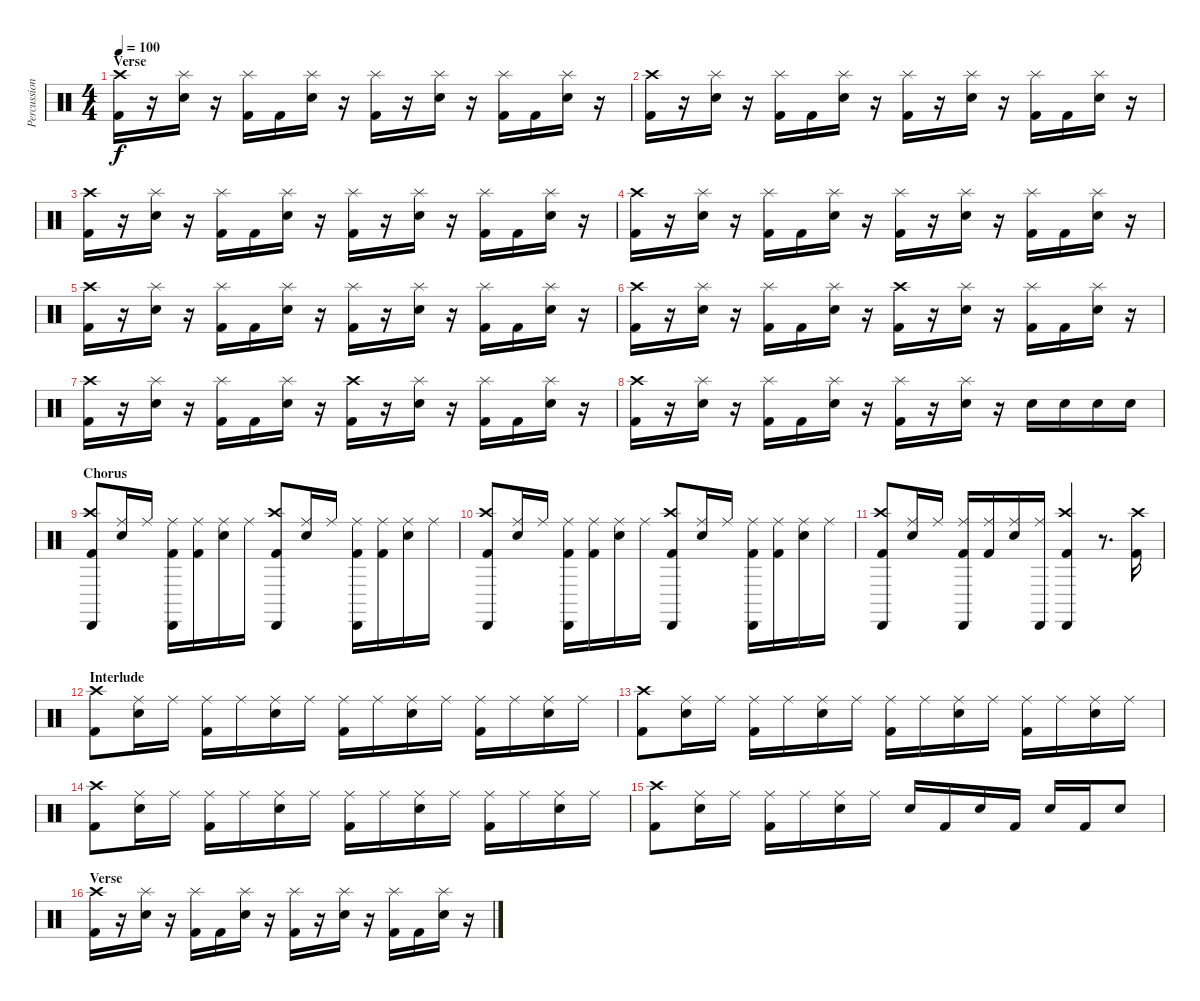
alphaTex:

\track ("Percussion" "Percussion") {instrument percussion}
\staff {score}
\articulation defaults
\ts (4 4)
\section ("" "Verse")
\tempo 100
\clef neutral
\ks c
("Crash high (hit)" "Kick (hit) 2").16{dy f} r.16 ("Splash (hit)" "Snare (hit) 2").16 r.16 ("Splash (hit)" "Kick (hit) 2").16 "Kick (hit) 2".16 ("Splash (hit)" "Snare (hit) 2").16 r.16 ("Splash (hit)" "Kick (hit) 2").16 r.16 ("Splash (hit)" "Snare (hit) 2").16 r.16 ("Splash (hit)" "Kick (hit) 2").16 "Kick (hit) 2".16 ("Splash (hit)" "Snare (hit) 2").16 r.16 |
("Crash high (hit)" "Kick (hit) 2").16 r.16 ("Splash (hit)" "Snare (hit) 2").16 r.16 ("Splash (hit)" "Kick (hit) 2").16 "Kick (hit) 2".16 ("Splash (hit)" "Snare (hit) 2").16 r.16 ("Splash (hit)" "Kick (hit) 2").16 r.16 ("Splash (hit)" "Snare (hit) 2").16 r.16 ("Splash (hit)" "Kick (hit) 2").16 "Kick (hit) 2".16 ("Splash (hit)" "Snare (hit) 2").16 r.16 |
("Crash high (hit)" "Kick (hit) 2").16 r.16 ("Splash (hit)" "Snare (hit) 2").16 r.16 ("Splash (hit)" "Kick (hit) 2").16 "Kick (hit) 2".16 ("Splash (hit)" "Snare (hit) 2").16 r.16 ("Splash (hit)" "Kick (hit) 2").16 r.16 ("Splash (hit)" "Snare (hit) 2").16 r.16 ("Splash (hit)" "Kick (hit) 2").16 "Kick (hit) 2".16 ("Splash (hit)" "Snare (hit) 2").16 r.16 |
("Crash high (hit)" "Kick (hit) 2").16 r.16 ("Splash (hit)" "Snare (hit) 2").16 r.16 ("Splash (hit)" "Kick (hit) 2").16 "Kick (hit) 2".16 ("Splash (hit)" "Snare (hit) 2").16 r.16 ("Splash (hit)" "Kick (hit) 2").16 r.16 ("Splash (hit)" "Snare (hit) 2").16 r.16 ("Splash (hit)" "Kick (hit) 2").16 "Kick (hit) 2".16 ("Splash (hit)" "Snare (hit) 2").16 r.16 |
("Crash high (hit)" "Kick (hit) 2").16 r.16 ("Splash (hit)" "Snare (hit) 2").16 r.16 ("Splash (hit)" "Kick (hit) 2").16 "Kick (hit) 2".16 ("Splash (hit)" "Snare (hit) 2").16 r.16 ("Splash (hit)" "Kick (hit) 2").16 r.16 ("Splash (hit)" "Snare (hit) 2").16 r.16 ("Splash (hit)" "Kick (hit) 2").16 "Kick (hit) 2".16 ("Splash (hit)" "Snare (hit) 2").16 r.16 |
("Crash high (hit)" "Kick (hit) 2").16 r.16 ("Splash (hit)" "Snare (hit) 2").16 r.16 ("Splash (hit)" "Kick (hit) 2").16 "Kick (hit) 2".16 ("Splash (hit)" "Snare (hit) 2").16 r.16 ("Crash high (hit)" "Kick (hit) 2").16 r.16 ("Splash (hit)" "Snare (hit) 2").16 r.16 ("Splash (hit)" "Kick (hit) 2").16 "Kick (hit) 2".16 ("Splash (hit)" "Snare (hit) 2").16 r.16 |
("Crash high (hit)" "Kick (hit) 2").16 r.16 ("Splash (hit)" "Snare (hit) 2").16 r.16 ("Splash (hit)" "Kick (hit) 2").16 "Kick (hit) 2".16 ("Splash (hit)" "Snare (hit) 2").16 r.16 ("Crash high (hit)" "Kick (hit) 2").16 r.16 ("Splash (hit)" "Snare (hit) 2").16 r.16 ("Splash (hit)" "Kick (hit) 2").16 "Kick (hit) 2".16 ("Splash (hit)" "Snare (hit) 2").16 r.16 |
("Crash high (hit)" "Kick (hit) 2").16 r.16 ("Splash (hit)" "Snare (hit) 2").16 r.16 ("Splash (hit)" "Kick (hit) 2").16 "Kick (hit) 2".16 ("Splash (hit)" "Snare (hit) 2").16 r.16 ("Splash (hit)" "Kick (hit) 2").16 r.16 ("Splash (hit)" "Snare (hit) 2").16 r.16 "Snare (hit) 2".16 "Snare (hit) 2".16 "Snare (hit) 2".16 "Snare (hit) 2".16 |
\section ("" "Chorus")
("Crash high (hit)" "Cabasa (hit)" "Kick (hit) 2").8 ("Ride (middle)" "Snare (hit) 2").16 "Ride (middle)".16 ("Ride (middle)" "Cabasa (hit)" "Kick (hit) 2").16 ("Ride (middle)" "Kick (hit) 2").16 ("Ride (middle)" "Snare (hit) 2").16 "Ride (middle)".16 ("Crash high (hit)" "Cabasa (hit)" "Kick (hit) 2").8 ("Ride (middle)" "Snare (hit) 2").16 "Ride (middle)".16 ("Ride (middle)" "Cabasa (hit)" "Kick (hit) 2").16 ("Ride (middle)" "Kick (hit) 2").16 ("Ride (middle)" "Snare (hit) 2").16 "Ride (middle)".16 |
("Crash high (hit)" "Cabasa (hit)" "Kick (hit) 2").8 ("Ride (middle)" "Snare (hit) 2").16 "Ride (middle)".16 ("Ride (middle)" "Cabasa (hit)" "Kick (hit) 2").16 ("Ride (middle)" "Kick (hit) 2").16 ("Ride (middle)" "Snare (hit) 2").16 "Ride (middle)".16 ("Crash high (hit)" "Cabasa (hit)" "Kick (hit) 2").8 ("Ride (middle)" "Snare (hit) 2").16 "Ride (middle)".16 ("Ride (middle)" "Cabasa (hit)" "Kick (hit) 2").16 ("Ride (middle)" "Kick (hit) 2").16 ("Ride (middle)" "Snare (hit) 2").16 "Ride (middle)".16 |
("Crash high (hit)" "Cabasa (hit)" "Kick (hit) 2").8 ("Ride (middle)" "Snare (hit) 2").16 "Ride (middle)".16 ("Ride (middle)" "Cabasa (hit)" "Kick (hit) 2").16 ("Ride (middle)" "Kick (hit) 2").16 ("Ride (middle)" "Snare (hit) 2").16 ("Ride (middle)" "Cabasa (hit)").16 ("Crash high (hit)" "Cabasa (hit)" "Kick (hit) 2").4 r.8{d} ("Crash high (hit)" "Kick (hit) 2").16 |
\section ("" "Interlude")
("Crash high (hit)" "Kick (hit) 2").8 ("Ride (middle)" "Snare (hit) 2").16 "Ride (middle)".16 ("Ride (middle)" "Kick (hit) 2").16 "Ride (middle)".16 ("Ride (middle)" "Snare (hit) 2").16 "Ride (middle)".16 ("Ride (middle)" "Kick (hit) 2").16 "Ride (middle)".16 ("Ride (middle)" "Snare (hit) 2").16 "Ride (middle)".16 ("Ride (middle)" "Kick (hit) 2").16 "Ride (middle)".16 ("Ride (middle)" "Snare (hit) 2").16 "Ride (middle)".16 |
("Crash high (hit)" "Kick (hit) 2").8 ("Ride (middle)" "Snare (hit) 2").16 "Ride (middle)".16 ("Ride (middle)" "Kick (hit) 2").16 "Ride (middle)".16 ("Ride (middle)" "Snare (hit) 2").16 "Ride (middle)".16 ("Ride (middle)" "Kick (hit) 2").16 "Ride (middle)".16 ("Ride (middle)" "Snare (hit) 2").16 "Ride (middle)".16 ("Ride (middle)" "Kick (hit) 2").16 "Ride (middle)".16 ("Ride (middle)" "Snare (hit) 2").16 "Ride (middle)".16 |
("Crash high (hit)" "Kick (hit) 2").8 ("Ride (middle)" "Snare (hit) 2").16 "Ride (middle)".16 ("Ride (middle)" "Kick (hit) 2").16 "Ride (middle)".16 ("Ride (middle)" "Snare (hit) 2").16 "Ride (middle)".16 ("Ride (middle)" "Kick (hit) 2").16 "Ride (middle)".16 ("Ride (middle)" "Snare (hit) 2").16 "Ride (middle)".16 ("Ride (middle)" "Kick (hit) 2").16 "Ride (middle)".16 ("Ride (middle)" "Snare (hit) 2").16 "Ride (middle)".16 |
("Crash high (hit)" "Kick (hit) 2").8 ("Ride (middle)" "Snare (hit) 2").16 "Ride (middle)".16 ("Ride (middle)" "Kick (hit) 2").16 "Ride (middle)".16 ("Ride (middle)" "Snare (hit) 2").16 "Ride (middle)".16 "Snare (hit) 2".16 "Kick (hit) 2".16 "Snare (hit) 2".16 "Kick (hit) 2".16 "Snare (hit) 2".16 "Kick (hit) 2".16 "Snare (hit) 2".8 |
\section ("" "Verse")
("Crash high (hit)" "Kick (hit) 2").16 r.16 ("Splash (hit)" "Snare (hit) 2").16 r.16 ("Splash (hit)" "Kick (hit) 2").16 "Kick (hit) 2".16 ("Splash (hit)" "Snare (hit) 2").16 r.16 ("Splash (hit)" "Kick (hit) 2").16 r.16 ("Splash (hit)" "Snare (hit) 2").16 r.16 ("Splash (hit)" "Kick (hit) 2").16 "Kick (hit) 2".16 ("Splash (hit)" "Snare (hit) 2").16 r.16
